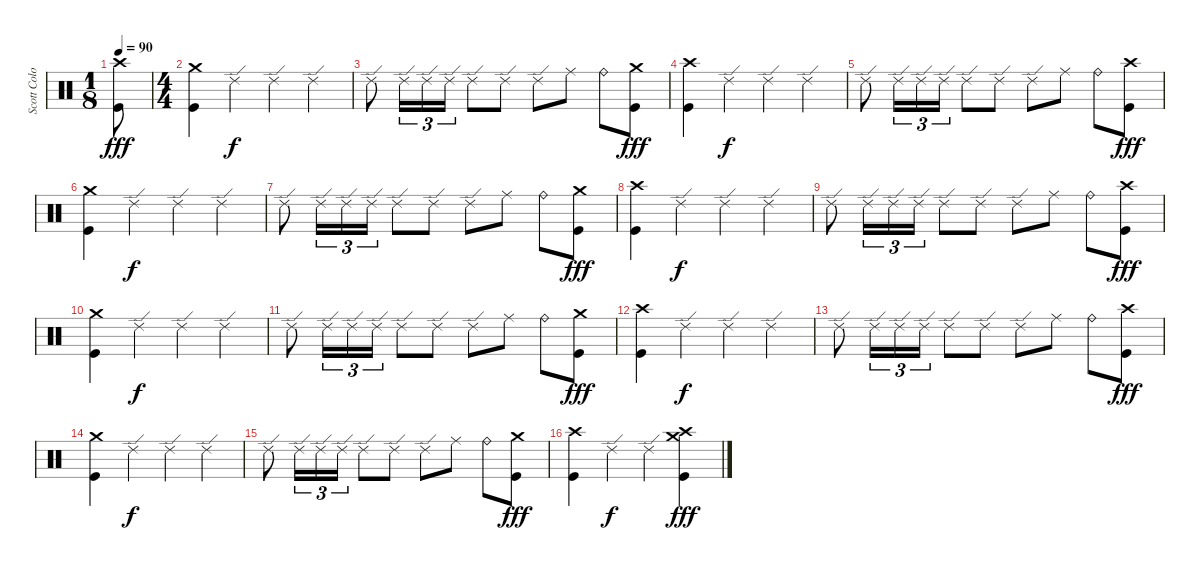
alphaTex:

\track ("Scott Colombus" "Scott Colo") {instrument percussion}
\staff {score}
\articulation defaults
\ts (1 8)
\tempo 90
\clef neutral
\ks c
("Crash high (hit)" "Kick (hit)").8{dy fff} |
\ts (4 4)
("Crash medium (hit)" "Kick (hit)").4 "Ride (edge) 2".4{dy f} "Ride (edge) 2".4 "Ride (edge) 2".4 |
"Ride (edge) 2".8 "Ride (edge) 2".16{tu (3 2)} "Ride (edge) 2".16{tu (3 2)} "Ride (edge) 2".16{tu (3 2)} "Ride (edge) 2".8 "Ride (edge) 2".8 "Ride (edge) 2".8 "Ride (middle)".8 "Ride (bell)".8 ("Crash medium (hit)" "Kick (hit)").8{dy fff} |
("Crash high (hit)" "Kick (hit)").4 "Ride (edge) 2".4{dy f} "Ride (edge) 2".4 "Ride (edge) 2".4 |
"Ride (edge) 2".8 "Ride (edge) 2".16{tu (3 2)} "Ride (edge) 2".16{tu (3 2)} "Ride (edge) 2".16{tu (3 2)} "Ride (edge) 2".8 "Ride (edge) 2".8 "Ride (edge) 2".8 "Ride (middle)".8 "Ride (bell)".8 ("Crash high (hit)" "Kick (hit)").8{dy fff} |
("Crash medium (hit)" "Kick (hit)").4 "Ride (edge) 2".4{dy f} "Ride (edge) 2".4 "Ride (edge) 2".4 |
"Ride (edge) 2".8 "Ride (edge) 2".16{tu (3 2)} "Ride (edge) 2".16{tu (3 2)} "Ride (edge) 2".16{tu (3 2)} "Ride (edge) 2".8 "Ride (edge) 2".8 "Ride (edge) 2".8 "Ride (middle)".8 "Ride (bell)".8 ("Crash medium (hit)" "Kick (hit)").8{dy fff} |
("Crash high (hit)" "Kick (hit)").4 "Ride (edge) 2".4{dy f} "Ride (edge) 2".4 "Ride (edge) 2".4 |
"Ride (edge) 2".8 "Ride (edge) 2".16{tu (3 2)} "Ride (edge) 2".16{tu (3 2)} "Ride (edge) 2".16{tu (3 2)} "Ride (edge) 2".8 "Ride (edge) 2".8 "Ride (edge) 2".8 "Ride (middle)".8 "Ride (bell)".8 ("Crash high (hit)" "Kick (hit)").8{dy fff} |
("Crash medium (hit)" "Kick (hit)").4 "Ride (edge) 2".4{dy f} "Ride (edge) 2".4 "Ride (edge) 2".4 |
"Ride (edge) 2".8 "Ride (edge) 2".16{tu (3 2)} "Ride (edge) 2".16{tu (3 2)} "Ride (edge) 2".16{tu (3 2)} "Ride (edge) 2".8 "Ride (edge) 2".8 "Ride (edge) 2".8 "Ride (middle)".8 "Ride (bell)".8 ("Crash medium (hit)" "Kick (hit)").8{dy fff} |
("Crash high (hit)" "Kick (hit)").4 "Ride (edge) 2".4{dy f} "Ride (edge) 2".4 "Ride (edge) 2".4 |
"Ride (edge) 2".8 "Ride (edge) 2".16{tu (3 2)} "Ride (edge) 2".16{tu (3 2)} "Ride (edge) 2".16{tu (3 2)} "Ride (edge) 2".8 "Ride (edge) 2".8 "Ride (edge) 2".8 "Ride (middle)".8 "Ride (bell)".8 ("Crash high (hit)" "Kick (hit)").8{dy fff} |
("Crash medium (hit)" "Kick (hit)").4 "Ride (edge) 2".4{dy f} "Ride (edge) 2".4 "Ride (edge) 2".4 |
"Ride (edge) 2".8 "Ride (edge) 2".16{tu (3 2)} "Ride (edge) 2".16{tu (3 2)} "Ride (edge) 2".16{tu (3 2)} "Ride (edge) 2".8 "Ride (edge) 2".8 "Ride (edge) 2".8 "Ride (middle)".8 "Ride (bell)".8 ("Crash medium (hit)" "Kick (hit)").8{dy fff} |
("Crash high (hit)" "Kick (hit)").4 "Ride (edge) 2".4{dy f} "Ride (edge) 2".4 ("Crash high (hit)" "Crash medium (hit)" "Kick (hit)").4{dy fff}
